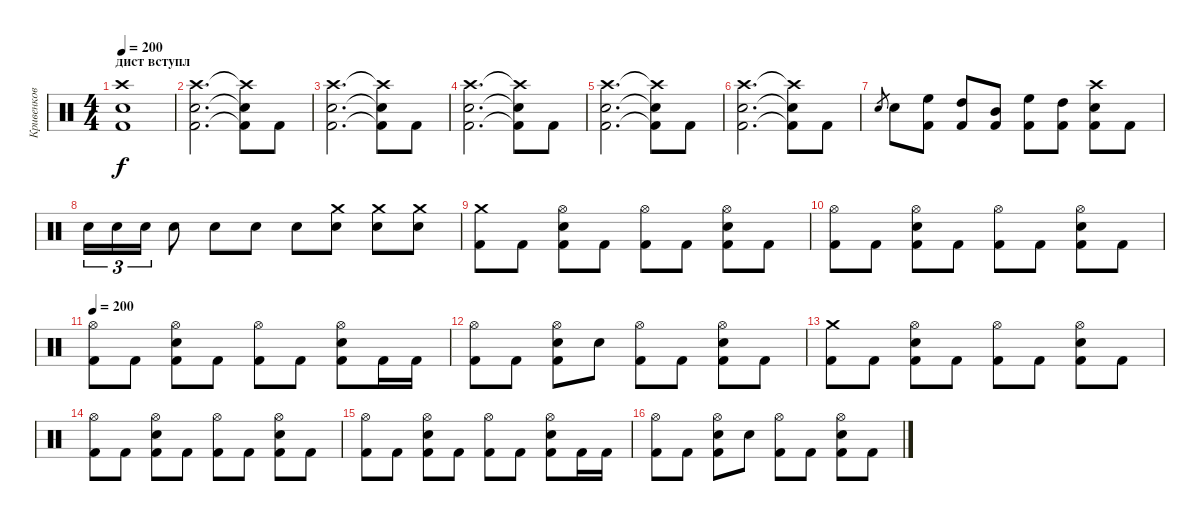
\track ("Кривенков" "Кривенков") {instrument percussion}
\staff {score}
\articulation defaults
\ts (4 4)
\section ("" "дист вступл")
\tempo 200
\clef neutral
\ks c
("Crash high (hit)" "Electric Snare (hit)" "Kick (hit) 2").1{dy f} |
("Crash high (hit)" "Electric Snare (hit)" "Kick (hit) 2").2{d} ("Crash high (hit)"{t} "Electric Snare (hit)"{t} "Kick (hit) 2"{t}).8 "Kick (hit) 2".8 |
("Crash high (hit)" "Electric Snare (hit)" "Kick (hit) 2").2{d} ("Crash high (hit)"{t} "Electric Snare (hit)"{t} "Kick (hit) 2"{t}).8 "Kick (hit) 2".8 |
("Crash high (hit)" "Electric Snare (hit)" "Kick (hit) 2").2{d} ("Crash high (hit)"{t} "Electric Snare (hit)"{t} "Kick (hit) 2"{t}).8 "Kick (hit) 2".8 |
("Crash high (hit)" "Electric Snare (hit)" "Kick (hit) 2").2{d} ("Crash high (hit)"{t} "Electric Snare (hit)"{t} "Kick (hit) 2"{t}).8 "Kick (hit) 2".8 |
("Crash high (hit)" "Electric Snare (hit)" "Kick (hit) 2").2{d} ("Crash high (hit)"{t} "Electric Snare (hit)"{t} "Kick (hit) 2"{t}).8 "Kick (hit) 2".8 |
"Electric Snare (hit)".8{gr} "Electric Snare (hit)".8 ("High Floor Tom (hit)" "Kick (hit) 2").8 ("High Tom (hit)" "Kick (hit) 2").8 ("Mid Tom (hit)" "Kick (hit) 2").8 ("High Floor Tom (hit)" "Kick (hit) 2").8 ("High Tom (hit)" "Kick (hit) 2").8 ("Crash high (hit)" "Electric Snare (hit)" "Kick (hit) 2").8 "Kick (hit) 2".8 |
"Electric Snare (hit)".16{tu (3 2)} "Electric Snare (hit)".16{tu (3 2)} "Electric Snare (hit)".16{tu (3 2)} "Electric Snare (hit)".8 "Electric Snare (hit)".8 "Electric Snare (hit)".8 "Electric Snare (hit)".8 ("Crash medium (hit)" "Electric Snare (hit)").8 ("Crash medium (hit)" "Electric Snare (hit)").8 ("Crash medium (hit)" "Electric Snare (hit)").8 |
("Crash medium (hit)" "Kick (hit) 2").8 "Kick (hit) 2".8 ("Hi-Hat (open)" "Electric Snare (hit)" "Kick (hit) 2").8 "Kick (hit) 2".8 ("Hi-Hat (open)" "Kick (hit) 2").8 "Kick (hit) 2".8 ("Hi-Hat (open)" "Electric Snare (hit)" "Kick (hit) 2").8 "Kick (hit) 2".8 |
("Hi-Hat (open)" "Kick (hit) 2").8 "Kick (hit) 2".8 ("Hi-Hat (open)" "Electric Snare (hit)" "Kick (hit) 2").8 "Kick (hit) 2".8 ("Hi-Hat (open)" "Kick (hit) 2").8 "Kick (hit) 2".8 ("Hi-Hat (open)" "Electric Snare (hit)" "Kick (hit) 2").8 "Kick (hit) 2".8 |
\tempo 200
("Hi-Hat (open)" "Kick (hit) 2").8 "Kick (hit) 2".8 ("Hi-Hat (open)" "Electric Snare (hit)" "Kick (hit) 2").8 "Kick (hit) 2".8 ("Hi-Hat (open)" "Kick (hit) 2").8 "Kick (hit) 2".8 ("Hi-Hat (open)" "Electric Snare (hit)" "Kick (hit) 2").8 "Kick (hit) 2".16 "Kick (hit) 2".16 |
("Hi-Hat (open)" "Kick (hit) 2").8 "Kick (hit) 2".8 ("Hi-Hat (open)" "Electric Snare (hit)" "Kick (hit) 2").8 "Electric Snare (hit)".8 ("Hi-Hat (open)" "Kick (hit) 2").8 "Kick (hit) 2".8 ("Hi-Hat (open)" "Electric Snare (hit)" "Kick (hit) 2").8 "Kick (hit) 2".8 |
("Crash medium (hit)" "Kick (hit) 2").8 "Kick (hit) 2".8 ("Hi-Hat (open)" "Electric Snare (hit)" "Kick (hit) 2").8 "Kick (hit) 2".8 ("Hi-Hat (open)" "Kick (hit) 2").8 "Kick (hit) 2".8 ("Hi-Hat (open)" "Electric Snare (hit)" "Kick (hit) 2").8 "Kick (hit) 2".8 |
("Hi-Hat (open)" "Kick (hit) 2").8 "Kick (hit) 2".8 ("Hi-Hat (open)" "Electric Snare (hit)" "Kick (hit) 2").8 "Kick (hit) 2".8 ("Hi-Hat (open)" "Kick (hit) 2").8 "Kick (hit) 2".8 ("Hi-Hat (open)" "Electric Snare (hit)" "Kick (hit) 2").8 "Kick (hit) 2".8 |
("Hi-Hat (open)" "Kick (hit) 2").8 "Kick (hit) 2".8 ("Hi-Hat (open)" "Electric Snare (hit)" "Kick (hit) 2").8 "Kick (hit) 2".8 ("Hi-Hat (open)" "Kick (hit) 2").8 "Kick (hit) 2".8 ("Hi-Hat (open)" "Electric Snare (hit)" "Kick (hit) 2").8 "Kick (hit) 2".16 "Kick (hit) 2".16 |
("Hi-Hat (open)" "Kick (hit) 2").8 "Kick (hit) 2".8 ("Hi-Hat (open)" "Electric Snare (hit)" "Kick (hit) 2").8 "Electric Snare (hit)".8 ("Hi-Hat (open)" "Kick (hit) 2").8 "Kick (hit) 2".8 ("Hi-Hat (open)" "Electric Snare (hit)" "Kick (hit) 2").8 "Kick (hit) 2".8
